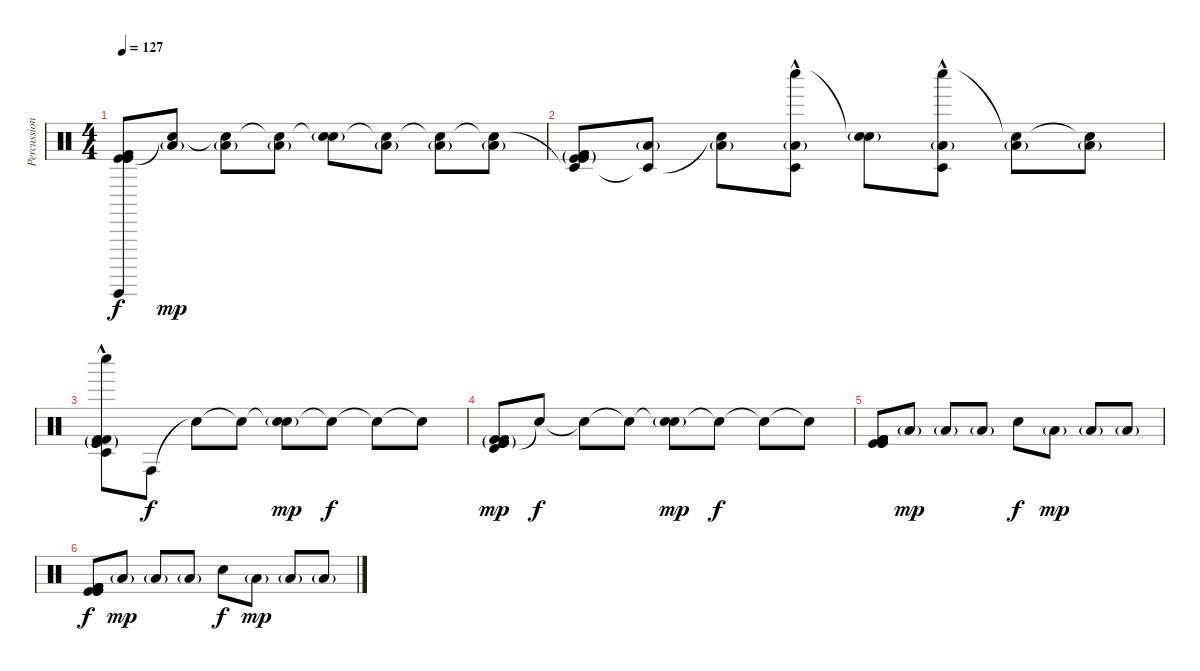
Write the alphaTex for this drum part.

\track ("Percussion" "Percussion") {instrument percussion}
\staff {score}
\articulation defaults
\ts (4 4)
\tempo 127
\clef neutral
\ks c
("Kick (hit)" "Guiro (hit)" "Kick (hit)" "Kick (hit) 2" "Kick (hit)" "Kick (hit) 2").8{dy f} ("Snare (hit)"{t} "Low Tom (hit)"{g}).8{dy mp} ("Snare (hit)"{t} "Low Tom (hit)"{g}).8 ("Snare (hit)"{t} "Low Tom (hit)"{g}).8 ("Snare (hit)"{t} "Snare (hit) 2"{g}).8 ("Snare (hit)"{t} "Low Tom (hit)"{g}).8 ("Snare (hit)"{t} "Low Tom (hit)"{g}).8 ("Snare (hit)"{t} "Low Tom (hit)"{g}).8 |
("Timbale low (hit)"{t} "Kick (hit)"{g} "Kick (hit) 2"{g} "Kick (hit)"{g} "Kick (hit) 2"{g}).8 ("Timbale low (hit)"{t} "Low Tom (hit)"{g}).8 ("Snare (hit)"{t} "Low Tom (hit)"{g}).8 ("Whistle low (hit)" "Timbale low (hit)"{hac} "Low Tom (hit)"{g}).8 ("Snare (hit)"{t} "Snare (hit) 2"{g}).8 ("Whistle low (hit)" "Timbale low (hit)"{hac} "Low Tom (hit)"{g}).8 ("Snare (hit)"{t} "Low Tom (hit)"{g}).8 ("Snare (hit)"{t} "Low Tom (hit)"{g}).8 |
("Whistle low (hit)" "Timbale low (hit)"{hac} "Kick (hit)"{g} "Kick (hit) 2"{g} "Kick (hit)"{g} "Kick (hit) 2"{g}).8 "Conga high (hit)".8{dy f} "Snare (hit)"{t}.8 "Snare (hit)"{t}.8 ("Snare (hit)"{t} "Snare (hit) 2"{g}).8{dy mp} "Snare (hit)"{t}.8{dy f} "Snare (hit)"{t}.8 "Snare (hit)"{t}.8 |
("Kick (hit)"{g} "Timbale high (hit)" "Kick (hit)"{g} "Kick (hit) 2"{g} "Kick (hit)"{g} "Kick (hit) 2"{g}).8{dy mp} "Snare (hit)"{t}.8{dy f} "Snare (hit)"{t}.8 "Snare (hit)"{t}.8 ("Snare (hit)"{t} "Snare (hit) 2"{g}).8{dy mp} "Snare (hit)"{t}.8{dy f} "Snare (hit)"{t}.8 "Snare (hit)"{t}.8{volume 8} |
("Kick (hit)" "Kick (hit) 2" "Kick (hit)" "Kick (hit) 2" "Kick (hit)" "Kick (hit) 2").8{volume 0} "Low Tom (hit)"{g}.8{dy mp} "Low Tom (hit)"{g}.8 "Low Tom (hit)"{g}.8 "Snare (hit) 2".8{dy f} "Low Tom (hit)"{g}.8{dy mp} "Low Tom (hit)"{g}.8 "Low Tom (hit)"{g}.8 |
("Kick (hit)" "Kick (hit) 2" "Kick (hit)" "Kick (hit) 2" "Kick (hit)" "Kick (hit) 2").8{dy f} "Low Tom (hit)"{g}.8{dy mp} "Low Tom (hit)"{g}.8 "Low Tom (hit)"{g}.8 "Snare (hit) 2".8{dy f} "Low Tom (hit)"{g}.8{dy mp} "Low Tom (hit)"{g}.8 "Low Tom (hit)"{g}.8
